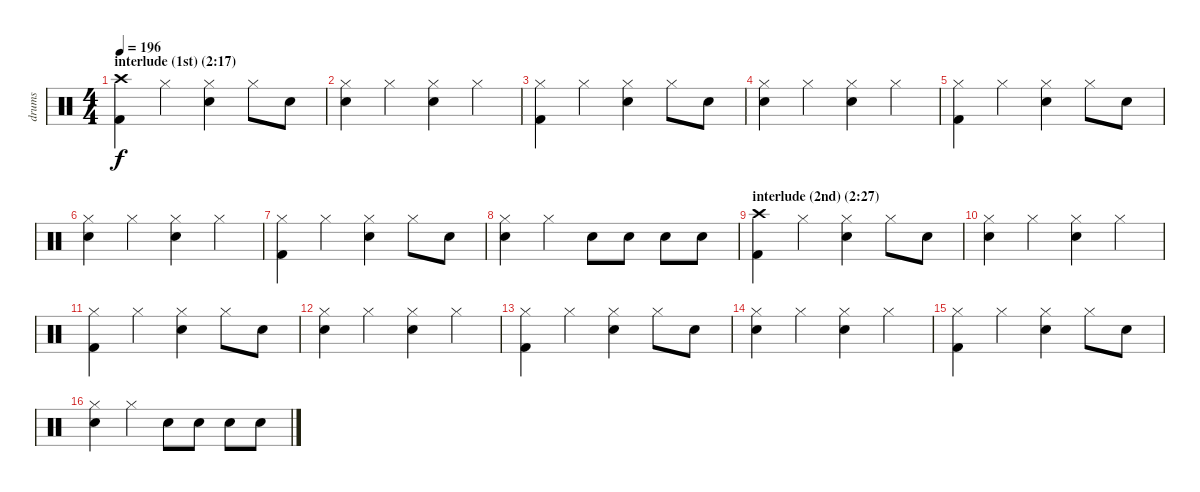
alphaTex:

\track ("drums" "drums") {instrument percussion}
\staff {score}
\articulation defaults
\ts (4 4)
\section ("" "interlude (1st) (2:17)")
\tempo 196
\clef neutral
\ks c
("Crash high (hit)" "Kick (hit) 2").4{dy f} "Hi-Hat (closed)".4 ("Hi-Hat (closed)" "Snare (hit) 2").4 "Hi-Hat (closed)".8 "Snare (hit) 2".8 |
("Hi-Hat (closed)" "Snare (hit) 2").4 "Hi-Hat (closed)".4 ("Hi-Hat (closed)" "Snare (hit) 2").4 "Hi-Hat (closed)".4 |
("Hi-Hat (closed)" "Kick (hit) 2").4 "Hi-Hat (closed)".4 ("Hi-Hat (closed)" "Snare (hit) 2").4 "Hi-Hat (closed)".8 "Snare (hit) 2".8 |
("Hi-Hat (closed)" "Snare (hit) 2").4 "Hi-Hat (closed)".4 ("Hi-Hat (closed)" "Snare (hit) 2").4 "Hi-Hat (closed)".4 |
("Hi-Hat (closed)" "Kick (hit) 2").4 "Hi-Hat (closed)".4 ("Hi-Hat (closed)" "Snare (hit) 2").4 "Hi-Hat (closed)".8 "Snare (hit) 2".8 |
("Hi-Hat (closed)" "Snare (hit) 2").4 "Hi-Hat (closed)".4 ("Hi-Hat (closed)" "Snare (hit) 2").4 "Hi-Hat (closed)".4 |
("Hi-Hat (closed)" "Kick (hit) 2").4 "Hi-Hat (closed)".4 ("Hi-Hat (closed)" "Snare (hit) 2").4 "Hi-Hat (closed)".8 "Snare (hit) 2".8 |
("Hi-Hat (closed)" "Snare (hit) 2").4 "Hi-Hat (closed)".4 "Snare (hit) 2".8 "Snare (hit) 2".8 "Snare (hit) 2".8 "Snare (hit) 2".8 |
\section ("" "interlude (2nd) (2:27)")
("Crash high (hit)" "Kick (hit) 2").4 "Hi-Hat (closed)".4 ("Hi-Hat (closed)" "Snare (hit) 2").4 "Hi-Hat (closed)".8 "Snare (hit) 2".8 |
("Hi-Hat (closed)" "Snare (hit) 2").4 "Hi-Hat (closed)".4 ("Hi-Hat (closed)" "Snare (hit) 2").4 "Hi-Hat (closed)".4 |
("Hi-Hat (closed)" "Kick (hit) 2").4 "Hi-Hat (closed)".4 ("Hi-Hat (closed)" "Snare (hit) 2").4 "Hi-Hat (closed)".8 "Snare (hit) 2".8 |
("Hi-Hat (closed)" "Snare (hit) 2").4 "Hi-Hat (closed)".4 ("Hi-Hat (closed)" "Snare (hit) 2").4 "Hi-Hat (closed)".4 |
("Hi-Hat (closed)" "Kick (hit) 2").4 "Hi-Hat (closed)".4 ("Hi-Hat (closed)" "Snare (hit) 2").4 "Hi-Hat (closed)".8 "Snare (hit) 2".8 |
("Hi-Hat (closed)" "Snare (hit) 2").4 "Hi-Hat (closed)".4 ("Hi-Hat (closed)" "Snare (hit) 2").4 "Hi-Hat (closed)".4 |
("Hi-Hat (closed)" "Kick (hit) 2").4 "Hi-Hat (closed)".4 ("Hi-Hat (closed)" "Snare (hit) 2").4 "Hi-Hat (closed)".8 "Snare (hit) 2".8 |
("Hi-Hat (closed)" "Snare (hit) 2").4 "Hi-Hat (closed)".4 "Snare (hit) 2".8 "Snare (hit) 2".8 "Snare (hit) 2".8 "Snare (hit) 2".8
